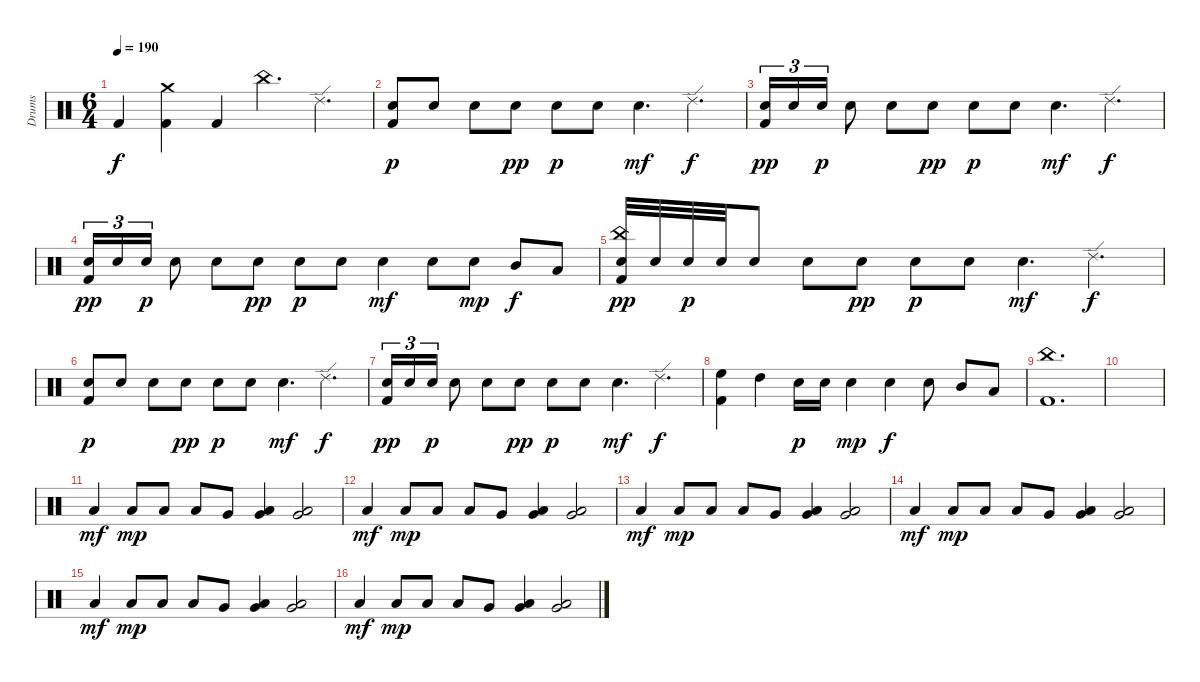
\track ("Drums" "Drums") {instrument percussion}
\staff {score}
\articulation defaults
\ts (6 4)
\tempo 190
\clef neutral
\ks c "Kick (hit) 2".4{dy f}
("Crash medium (hit)" "Kick (hit) 2").4 "Kick (hit) 2".4 "China (hit)".4{d} "Ride (edge) 2".4{d} |
("Electric Snare (hit)" "Kick (hit) 2").8{dy p} "Electric Snare (hit)".8 "Electric Snare (hit)".8 "Electric Snare (hit)".8{dy pp} "Electric Snare (hit)".8{dy p} "Electric Snare (hit)".8 "Electric Snare (hit)".4{d dy mf} "Ride (edge) 2".4{d dy f} |
("Electric Snare (hit)" "Kick (hit) 2").16{tu (3 2) dy pp} "Electric Snare (hit)".16{tu (3 2)} "Electric Snare (hit)".16{tu (3 2) dy p} "Electric Snare (hit)".8 "Electric Snare (hit)".8 "Electric Snare (hit)".8{dy pp} "Electric Snare (hit)".8{dy p} "Electric Snare (hit)".8 "Electric Snare (hit)".4{d dy mf} "Ride (edge) 2".4{d dy f} |
("Electric Snare (hit)" "Kick (hit) 2").16{tu (3 2) dy pp} "Electric Snare (hit)".16{tu (3 2)} "Electric Snare (hit)".16{tu (3 2) dy p} "Electric Snare (hit)".8 "Electric Snare (hit)".8 "Electric Snare (hit)".8{dy pp} "Electric Snare (hit)".8{dy p} "Electric Snare (hit)".8 "Electric Snare (hit)".4{dy mf} "Electric Snare (hit)".8 "Electric Snare (hit)".8{dy mp} "Mid Tom (hit)".8{dy f} "Low Tom (hit)".8 |
("China (hit)" "Electric Snare (hit)" "Kick (hit) 2").32{dy pp} "Electric Snare (hit)".32 "Electric Snare (hit)".32{dy p} "Electric Snare (hit)".32 "Electric Snare (hit)".8 "Electric Snare (hit)".8 "Electric Snare (hit)".8{dy pp} "Electric Snare (hit)".8{dy p} "Electric Snare (hit)".8 "Electric Snare (hit)".4{d dy mf} "Ride (edge) 2".4{d dy f} |
("Electric Snare (hit)" "Kick (hit) 2").8{dy p} "Electric Snare (hit)".8 "Electric Snare (hit)".8 "Electric Snare (hit)".8{dy pp} "Electric Snare (hit)".8{dy p} "Electric Snare (hit)".8 "Electric Snare (hit)".4{d dy mf} "Ride (edge) 2".4{d dy f} |
("Electric Snare (hit)" "Kick (hit) 2").16{tu (3 2) dy pp} "Electric Snare (hit)".16{tu (3 2)} "Electric Snare (hit)".16{tu (3 2) dy p} "Electric Snare (hit)".8 "Electric Snare (hit)".8 "Electric Snare (hit)".8{dy pp} "Electric Snare (hit)".8{dy p} "Electric Snare (hit)".8 "Electric Snare (hit)".4{d dy mf} "Ride (edge) 2".4{d dy f} |
("High Floor Tom (hit)" "Kick (hit) 2").4 "High Tom (hit)".4 "Electric Snare (hit)".16{dy p} "Electric Snare (hit)".16 "Electric Snare (hit)".4{dy mp} "Electric Snare (hit)".4{dy f} "Electric Snare (hit)".8 "Mid Tom (hit)".8 "Low Tom (hit)".8 |
("China (hit)" "Kick (hit) 2").1{d} |
|
"Low Tom (hit)".4{dy mf} "Low Tom (hit)".8{dy mp} "Low Tom (hit)".8 "Low Tom (hit)".8 "Very Low Tom (hit)".8 ("Very Low Tom (hit)" "Low Floor Tom (hit)").4 ("Very Low Tom (hit)" "Low Floor Tom (hit)").2 |
"Low Tom (hit)".4{dy mf} "Low Tom (hit)".8{dy mp} "Low Tom (hit)".8 "Low Tom (hit)".8 "Very Low Tom (hit)".8 ("Very Low Tom (hit)" "Low Floor Tom (hit)").4 ("Very Low Tom (hit)" "Low Floor Tom (hit)").2 |
"Low Tom (hit)".4{dy mf} "Low Tom (hit)".8{dy mp} "Low Tom (hit)".8 "Low Tom (hit)".8 "Very Low Tom (hit)".8 ("Very Low Tom (hit)" "Low Floor Tom (hit)").4 ("Very Low Tom (hit)" "Low Floor Tom (hit)").2 |
"Low Tom (hit)".4{dy mf} "Low Tom (hit)".8{dy mp} "Low Tom (hit)".8 "Low Tom (hit)".8 "Very Low Tom (hit)".8 ("Very Low Tom (hit)" "Low Floor Tom (hit)").4 ("Very Low Tom (hit)" "Low Floor Tom (hit)").2 |
"Low Tom (hit)".4{dy mf} "Low Tom (hit)".8{dy mp} "Low Tom (hit)".8 "Low Tom (hit)".8 "Very Low Tom (hit)".8 ("Very Low Tom (hit)" "Low Floor Tom (hit)").4 ("Very Low Tom (hit)" "Low Floor Tom (hit)").2 |
"Low Tom (hit)".4{dy mf} "Low Tom (hit)".8{dy mp} "Low Tom (hit)".8 "Low Tom (hit)".8 "Very Low Tom (hit)".8 ("Very Low Tom (hit)" "Low Floor Tom (hit)").4 ("Very Low Tom (hit)" "Low Floor Tom (hit)").2
